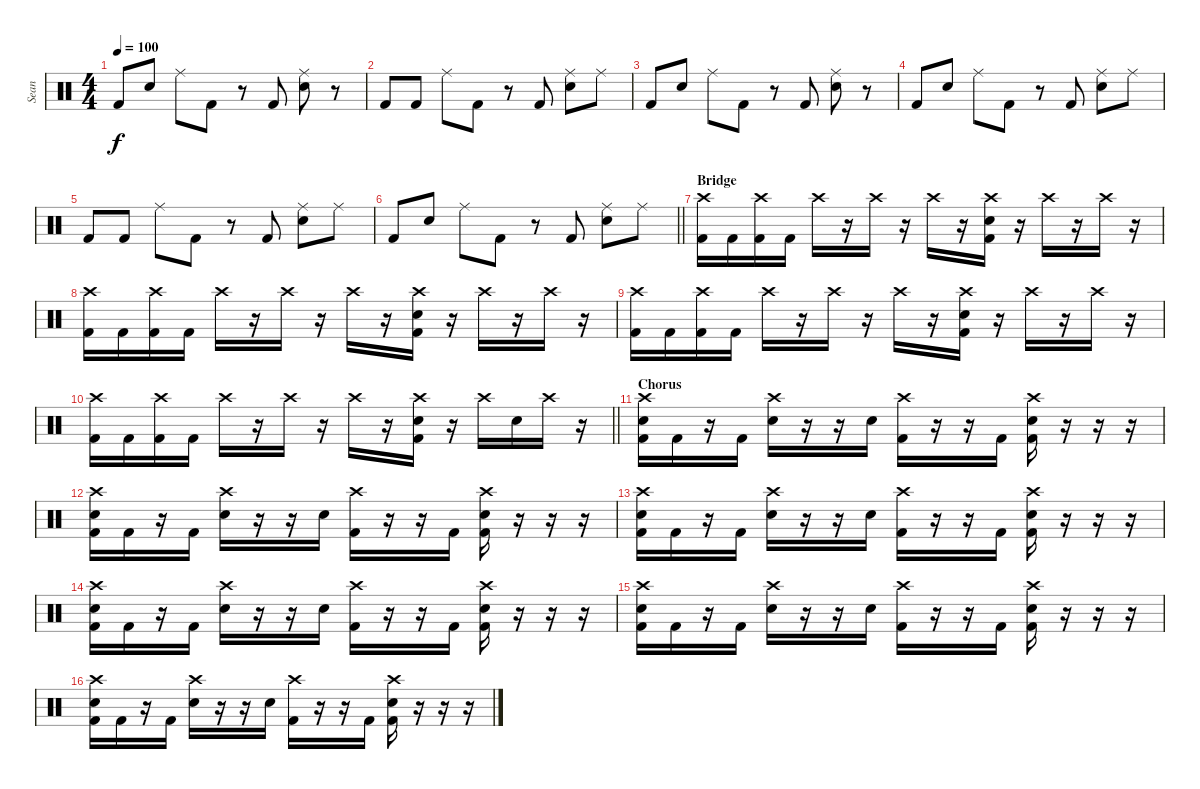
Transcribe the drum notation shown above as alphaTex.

\track ("Sean" "Sean") {instrument percussion}
\staff {score}
\articulation defaults
\ts (4 4)
\tempo 100
\clef neutral
\ks c "Kick (hit) 2".8{dy f} "Snare (hit) 2".8 "Ride (middle)".8 "Kick (hit) 2".8
r.8 "Kick (hit) 2".8 ("Ride (middle)" "Snare (hit) 2").8 r.8 |
"Kick (hit) 2".8 "Kick (hit) 2".8 "Ride (middle)".8 "Kick (hit) 2".8 r.8 "Kick (hit) 2".8 ("Ride (middle)" "Snare (hit) 2").8 "Ride (middle)".8 |
"Kick (hit) 2".8 "Snare (hit) 2".8 "Ride (middle)".8 "Kick (hit) 2".8 r.8 "Kick (hit) 2".8 ("Ride (middle)" "Snare (hit) 2").8 r.8 |
"Kick (hit) 2".8 "Snare (hit) 2".8 "Ride (middle)".8 "Kick (hit) 2".8 r.8 "Kick (hit) 2".8 ("Ride (middle)" "Snare (hit) 2").8 "Ride (middle)".8 |
"Kick (hit) 2".8 "Kick (hit) 2".8 "Ride (middle)".8 "Kick (hit) 2".8 r.8 "Kick (hit) 2".8 ("Ride (middle)" "Snare (hit) 2").8 "Ride (middle)".8 |
\barLineRight lightlight "Kick (hit) 2".8 "Snare (hit) 2".8 "Ride (middle)".8 "Kick (hit) 2".8
r.8 "Kick (hit) 2".8 ("Ride (middle)" "Snare (hit) 2").8 "Ride (middle)".8 |
\section ("" "Bridge")
("Crash high (hit)" "Kick (hit) 2").16 "Kick (hit) 2".16 ("Crash high (hit)" "Kick (hit) 2").16 "Kick (hit) 2".16 "Crash high (hit)".16 r.16 "Crash high (hit)".16 r.16 "Crash high (hit)".16 r.16 ("Crash high (hit)" "Snare (hit) 2" "Kick (hit) 2").16 r.16 "Crash high (hit)".16 r.16 "Crash high (hit)".16 r.16 |
("Crash high (hit)" "Kick (hit) 2").16 "Kick (hit) 2".16 ("Crash high (hit)" "Kick (hit) 2").16 "Kick (hit) 2".16 "Crash high (hit)".16 r.16 "Crash high (hit)".16 r.16 "Crash high (hit)".16 r.16 ("Crash high (hit)" "Snare (hit) 2" "Kick (hit) 2").16 r.16 "Crash high (hit)".16 r.16 "Crash high (hit)".16 r.16 |
("Crash high (hit)" "Kick (hit) 2").16 "Kick (hit) 2".16 ("Crash high (hit)" "Kick (hit) 2").16 "Kick (hit) 2".16 "Crash high (hit)".16 r.16 "Crash high (hit)".16 r.16 "Crash high (hit)".16 r.16 ("Crash high (hit)" "Snare (hit) 2" "Kick (hit) 2").16 r.16 "Crash high (hit)".16 r.16 "Crash high (hit)".16 r.16 |
\barLineRight lightlight
("Crash high (hit)" "Kick (hit) 2").16 "Kick (hit) 2".16 ("Crash high (hit)" "Kick (hit) 2").16 "Kick (hit) 2".16 "Crash high (hit)".16 r.16 "Crash high (hit)".16 r.16 "Crash high (hit)".16 r.16 ("Crash high (hit)" "Snare (hit) 2" "Kick (hit) 2").16 r.16 "Crash high (hit)".16 "Snare (hit) 2".16 "Crash high (hit)".16 r.16 |
\section ("" "Chorus")
("Crash high (hit)" "Snare (hit) 2" "Kick (hit) 2").16 "Kick (hit) 2".16 r.16 "Kick (hit) 2".16 ("Crash high (hit)" "Snare (hit) 2").16 r.16 r.16 "Snare (hit) 2".16 ("Crash high (hit)" "Kick (hit) 2").16 r.16 r.16 "Kick (hit) 2".16 ("Crash high (hit)" "Snare (hit) 2" "Kick (hit) 2").16 r.16 r.16 r.16 |
("Crash high (hit)" "Snare (hit) 2" "Kick (hit) 2").16 "Kick (hit) 2".16 r.16 "Kick (hit) 2".16 ("Crash high (hit)" "Snare (hit) 2").16 r.16 r.16 "Snare (hit) 2".16 ("Crash high (hit)" "Kick (hit) 2").16 r.16 r.16 "Kick (hit) 2".16 ("Crash high (hit)" "Snare (hit) 2" "Kick (hit) 2").16 r.16 r.16 r.16 |
("Crash high (hit)" "Snare (hit) 2" "Kick (hit) 2").16 "Kick (hit) 2".16 r.16 "Kick (hit) 2".16 ("Crash high (hit)" "Snare (hit) 2").16 r.16 r.16 "Snare (hit) 2".16 ("Crash high (hit)" "Kick (hit) 2").16 r.16 r.16 "Kick (hit) 2".16 ("Crash high (hit)" "Snare (hit) 2" "Kick (hit) 2").16 r.16 r.16 r.16 |
("Crash high (hit)" "Snare (hit) 2" "Kick (hit) 2").16 "Kick (hit) 2".16 r.16 "Kick (hit) 2".16 ("Crash high (hit)" "Snare (hit) 2").16 r.16 r.16 "Snare (hit) 2".16 ("Crash high (hit)" "Kick (hit) 2").16 r.16 r.16 "Kick (hit) 2".16 ("Crash high (hit)" "Snare (hit) 2" "Kick (hit) 2").16 r.16 r.16 r.16 |
("Crash high (hit)" "Snare (hit) 2" "Kick (hit) 2").16 "Kick (hit) 2".16 r.16 "Kick (hit) 2".16 ("Crash high (hit)" "Snare (hit) 2").16 r.16 r.16 "Snare (hit) 2".16 ("Crash high (hit)" "Kick (hit) 2").16 r.16 r.16 "Kick (hit) 2".16 ("Crash high (hit)" "Snare (hit) 2" "Kick (hit) 2").16 r.16 r.16 r.16 |
("Crash high (hit)" "Snare (hit) 2" "Kick (hit) 2").16 "Kick (hit) 2".16 r.16 "Kick (hit) 2".16 ("Crash high (hit)" "Snare (hit) 2").16 r.16 r.16 "Snare (hit) 2".16 ("Crash high (hit)" "Kick (hit) 2").16 r.16 r.16 "Kick (hit) 2".16 ("Crash high (hit)" "Snare (hit) 2" "Kick (hit) 2").16 r.16 r.16 r.16
